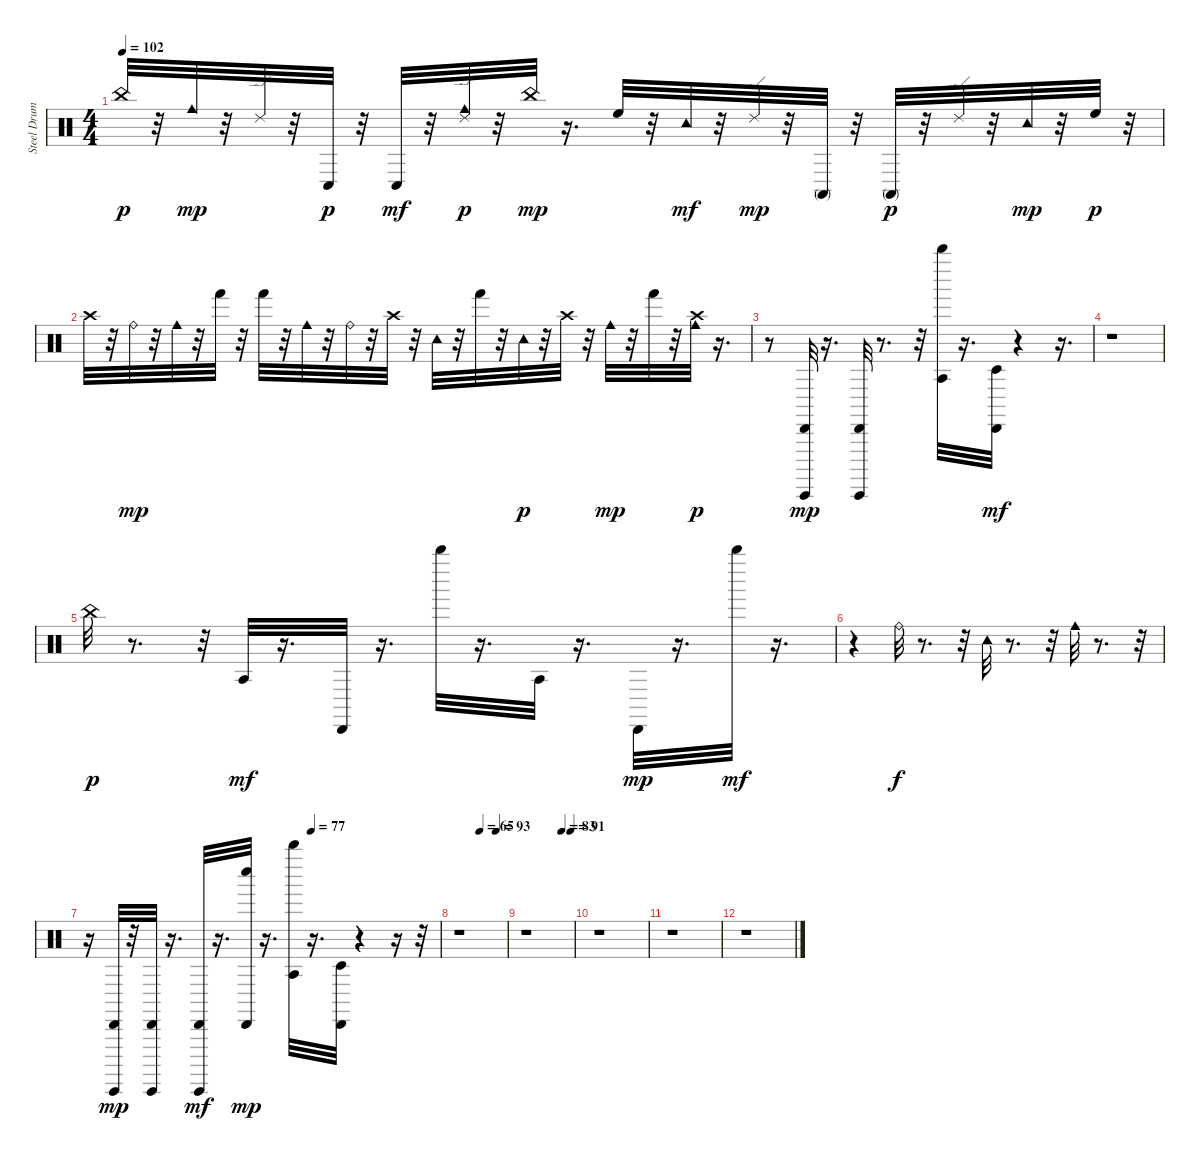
\track ("Steel Drums" "Steel Drum") {instrument percussion}
\staff {score}
\articulation defaults
\ts (4 4)
\tempo 102
\clef neutral
\ks c "China (hit)".32{dy p}
r.32 "Cowbell medium (hit)".32{dy mp} r.32 "Ride (edge) 2".32 r.32 "Conga low (hit)".32{dy p} r.32 "Conga low (hit)".32{dy mf} r.32 ("Cowbell medium (hit)" "Ride (edge) 2").32{dy p} r.32 "China (hit)".32{dy mp} r.16{d} "High Floor Tom (hit)".32 r.32 "Tambourine (hit)".32{dy mf} r.32 "Ride (edge) 2".32{dy mp} r.32 "Conga high (mute)".32 r.32 "Conga high (mute)".32{dy p} r.32 "Ride (edge) 2".32 r.32 "Tambourine (hit)".32{dy mp} r.32 "High Floor Tom (hit)".32{dy p} r.32 |
"Crash high (hit)".32 r.32 "Ride (bell)".32{dy mp} r.32 "Cowbell medium (hit)".32 r.32 "Hand (hit)".32 r.32 "Hand (hit)".32 r.32 "Cowbell medium (hit)".32 r.32 "Ride (bell)".32 r.32 "Crash high (hit)".32 r.32 "Tambourine (hit)".32 r.32 "Hand (hit)".32 r.32 "Tambourine (hit)".32{dy p} r.32 "Crash high (hit)".32 r.32 "Cowbell medium (hit)".32{dy mp} r.32 "Hand (hit)".32 r.32 ("Crash high (hit)" "Cowbell medium (hit)").32{dy p} r.16{d} |
r.8 ("Cabasa (hit)" "Guiro (hit)").32{dy mp} r.16{d} ("Cabasa (hit)" "Guiro (hit)").32 r.8{d} r.32 ("Whistle high (hit)" "Agogo tow (hit)").32 r.16{d} ("Cabasa (hit)" "Timbale low (hit)").32{dy mf} r.4 r.16{d} |
r.1 |
"China (hit)".32{dy p} r.8{d} r.32 "Agogo tow (hit)".32{dy mf} r.16{d} "Cabasa (hit)".32 r.16{d} "Whistle high (hit)".32 r.16{d} "Agogo tow (hit)".32 r.16{d} "Cabasa (hit)".32{dy mp} r.16{d} "Whistle high (hit)".32{dy mf} r.16{d} |
r.4 "Ride (bell)".32{dy f} r.8{d} r.32 "Tambourine (hit)".32 r.8{d} r.32 "Cowbell medium (hit)".32 r.8{d} r.32 |
\tempo (77 0.6354166666666666)
r.16 ("Cabasa (hit)" "Guiro (hit)").32{dy mp} r.32 ("Guiro (hit)" "Cabasa (hit)").32 r.16{d} ("Cabasa (hit)" "Guiro (hit)").32{dy mf} r.16{d} ("Cabasa (hit)" "Whistle low (hit)").32{dy mp} r.16{d} ("Agogo tow (hit)" "Whistle high (hit)").32 r.16{d} ("Timbale low (hit)" "Cabasa (hit)").32 r.4 r.16 r.32 |
\tempo (65 0.4479166666666667)
\tempo (93 0.7916666666666666)
r.1 |
\tempo (83 0.7604166666666666)
\tempo (91 0.9479166666666666)
r.1 |
r.1 |
r.1 |
r.1
